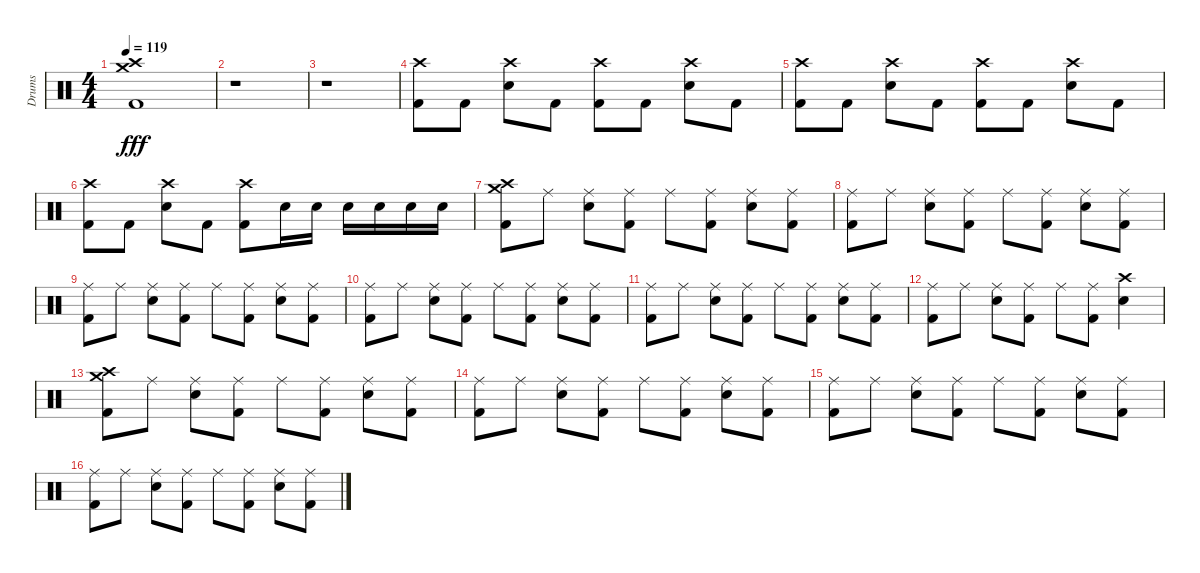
\track ("Drums" "Drums") {instrument percussion}
\staff {score}
\articulation defaults
\ts (4 4)
\tempo 119
\clef neutral
\ks c
("Crash high (hit)" "Crash medium (hit)" "Kick (hit) 2").1{dy fff} |
r.1 |
r.1 |
("Crash high (hit)" "Kick (hit) 2").8 "Kick (hit) 2".8 ("Crash high (hit)" "Snare (hit) 2").8 "Kick (hit) 2".8 ("Crash high (hit)" "Kick (hit) 2").8 "Kick (hit) 2".8 ("Crash high (hit)" "Snare (hit) 2").8 "Kick (hit) 2".8 |
("Crash high (hit)" "Kick (hit) 2").8 "Kick (hit) 2".8 ("Crash high (hit)" "Snare (hit) 2").8 "Kick (hit) 2".8 ("Crash high (hit)" "Kick (hit) 2").8 "Kick (hit) 2".8 ("Crash high (hit)" "Snare (hit) 2").8 "Kick (hit) 2".8 |
("Crash high (hit)" "Kick (hit) 2").8 "Kick (hit) 2".8 ("Crash high (hit)" "Snare (hit) 2").8 "Kick (hit) 2".8 ("Crash high (hit)" "Kick (hit) 2").8 "Snare (hit) 2".16 "Snare (hit) 2".16 "Snare (hit) 2".16 "Snare (hit) 2".16 "Snare (hit) 2".16 "Snare (hit) 2".16 |
("Crash high (hit)" "Crash medium (hit)" "Kick (hit) 2").8 "Ride (middle)".8 ("Ride (middle)" "Snare (hit) 2").8 ("Ride (middle)" "Kick (hit) 2").8 "Ride (middle)".8 ("Ride (middle)" "Kick (hit) 2").8 ("Ride (middle)" "Snare (hit) 2").8 ("Ride (middle)" "Kick (hit) 2").8 |
("Ride (middle)" "Kick (hit) 2").8 "Ride (middle)".8 ("Ride (middle)" "Snare (hit) 2").8 ("Ride (middle)" "Kick (hit) 2").8 "Ride (middle)".8 ("Ride (middle)" "Kick (hit) 2").8 ("Ride (middle)" "Snare (hit) 2").8 ("Ride (middle)" "Kick (hit) 2").8 |
("Ride (middle)" "Kick (hit) 2").8 "Ride (middle)".8 ("Ride (middle)" "Snare (hit) 2").8 ("Ride (middle)" "Kick (hit) 2").8 "Ride (middle)".8 ("Ride (middle)" "Kick (hit) 2").8 ("Ride (middle)" "Snare (hit) 2").8 ("Ride (middle)" "Kick (hit) 2").8 |
("Ride (middle)" "Kick (hit) 2").8 "Ride (middle)".8 ("Ride (middle)" "Snare (hit) 2").8 ("Ride (middle)" "Kick (hit) 2").8 "Ride (middle)".8 ("Ride (middle)" "Kick (hit) 2").8 ("Ride (middle)" "Snare (hit) 2").8 ("Ride (middle)" "Kick (hit) 2").8 |
("Ride (middle)" "Kick (hit) 2").8 "Ride (middle)".8 ("Ride (middle)" "Snare (hit) 2").8 ("Ride (middle)" "Kick (hit) 2").8 "Ride (middle)".8 ("Ride (middle)" "Kick (hit) 2").8 ("Ride (middle)" "Snare (hit) 2").8 ("Ride (middle)" "Kick (hit) 2").8 |
("Ride (middle)" "Kick (hit) 2").8 "Ride (middle)".8 ("Ride (middle)" "Snare (hit) 2").8 ("Ride (middle)" "Kick (hit) 2").8 "Ride (middle)".8 ("Ride (middle)" "Kick (hit) 2").8 ("Crash high (hit)" "Snare (hit) 2").4 |
("Crash high (hit)" "Crash medium (hit)" "Kick (hit) 2").8 "Ride (middle)".8 ("Ride (middle)" "Snare (hit) 2").8 ("Ride (middle)" "Kick (hit) 2").8 "Ride (middle)".8 ("Ride (middle)" "Kick (hit) 2").8 ("Ride (middle)" "Snare (hit) 2").8 ("Ride (middle)" "Kick (hit) 2").8 |
("Ride (middle)" "Kick (hit) 2").8 "Ride (middle)".8 ("Ride (middle)" "Snare (hit) 2").8 ("Ride (middle)" "Kick (hit) 2").8 "Ride (middle)".8 ("Ride (middle)" "Kick (hit) 2").8 ("Ride (middle)" "Snare (hit) 2").8 ("Ride (middle)" "Kick (hit) 2").8 |
("Ride (middle)" "Kick (hit) 2").8 "Ride (middle)".8 ("Ride (middle)" "Snare (hit) 2").8 ("Ride (middle)" "Kick (hit) 2").8 "Ride (middle)".8 ("Ride (middle)" "Kick (hit) 2").8 ("Ride (middle)" "Snare (hit) 2").8 ("Ride (middle)" "Kick (hit) 2").8 |
("Ride (middle)" "Kick (hit) 2").8 "Ride (middle)".8 ("Ride (middle)" "Snare (hit) 2").8 ("Ride (middle)" "Kick (hit) 2").8 "Ride (middle)".8 ("Ride (middle)" "Kick (hit) 2").8 ("Ride (middle)" "Snare (hit) 2").8 ("Ride (middle)" "Kick (hit) 2").8
